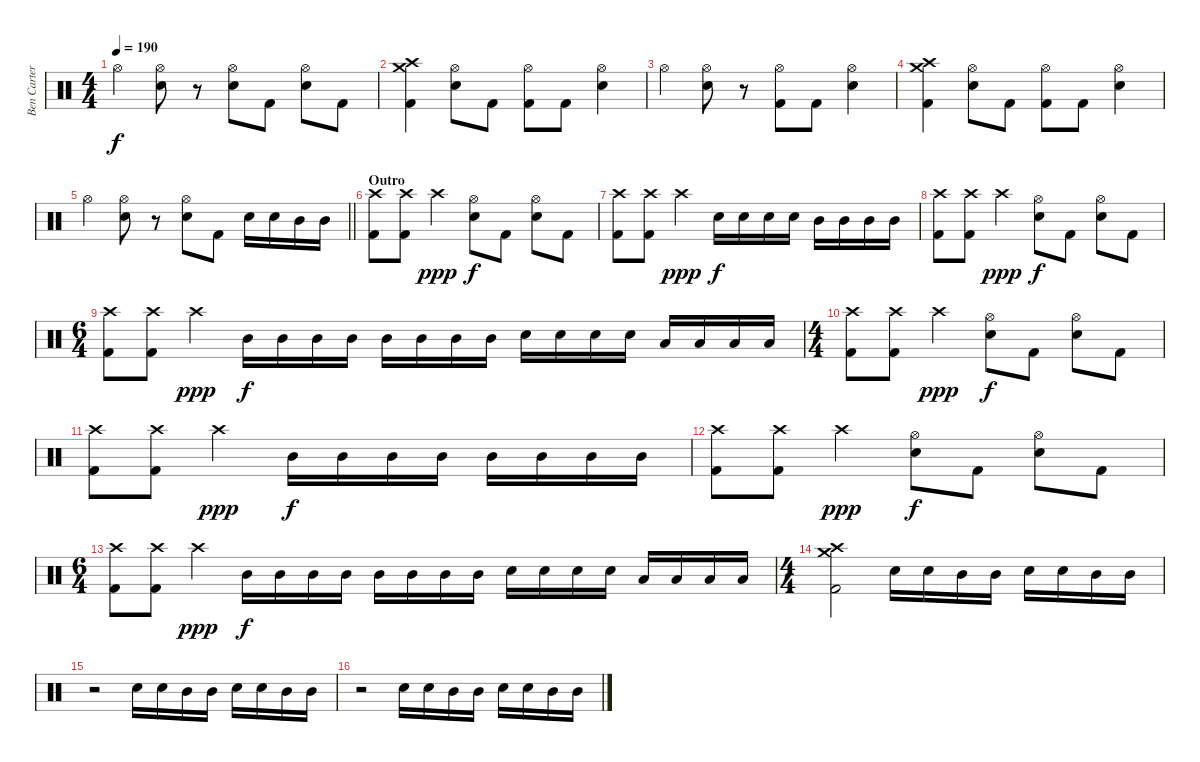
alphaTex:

\track ("Ben Carter" "Ben Carter") {instrument percussion}
\staff {score}
\articulation defaults
\ts (4 4)
\tempo 190
\clef neutral
\ks c "Hi-Hat (open)".4{dy f}
("Hi-Hat (open)" "Snare (hit) 2").8 r.8 ("Hi-Hat (open)" "Snare (hit) 2").8 "Kick (hit) 2".8 ("Hi-Hat (open)" "Snare (hit) 2").8 "Kick (hit) 2".8 |
("Crash medium (hit)" "Crash high (hit)" "Kick (hit) 2").4 ("Hi-Hat (open)" "Snare (hit) 2").8 "Kick (hit) 2".8 ("Hi-Hat (open)" "Kick (hit) 2").8 "Kick (hit) 2".8 ("Hi-Hat (open)" "Snare (hit) 2").4 |
"Hi-Hat (open)".4 ("Hi-Hat (open)" "Snare (hit) 2").8 r.8 ("Hi-Hat (open)" "Kick (hit) 2").8 "Kick (hit) 2".8 ("Hi-Hat (open)" "Snare (hit) 2").4 |
("Crash medium (hit)" "Crash high (hit)" "Kick (hit) 2").4 ("Hi-Hat (open)" "Snare (hit) 2").8 "Kick (hit) 2".8 ("Hi-Hat (open)" "Kick (hit) 2").8 "Kick (hit) 2".8 ("Hi-Hat (open)" "Snare (hit) 2").4 |
\barLineRight lightlight "Hi-Hat (open)".4
("Hi-Hat (open)" "Snare (hit) 2").8 r.8 ("Hi-Hat (open)" "Snare (hit) 2").8 "Kick (hit) 2".8 "Snare (hit) 2".16 "Snare (hit) 2".16 "Mid Tom (hit)".16 "Mid Tom (hit)".16 |
\section ("" "Outro")
("Crash high (hit)" "Kick (hit) 2").8 ("Crash high (hit)" "Kick (hit) 2").8 "Crash high (hit)".4{dy ppp} ("Hi-Hat (open)" "Snare (hit) 2").8{dy f} "Kick (hit) 2".8 ("Hi-Hat (open)" "Snare (hit) 2").8 "Kick (hit) 2".8 |
("Crash high (hit)" "Kick (hit) 2").8 ("Crash high (hit)" "Kick (hit) 2").8 "Crash high (hit)".4{dy ppp} "Snare (hit) 2".16{dy f} "Snare (hit) 2".16 "Snare (hit) 2".16 "Snare (hit) 2".16 "Mid Tom (hit)".16 "Mid Tom (hit)".16 "Mid Tom (hit)".16 "Mid Tom (hit)".16 |
("Crash high (hit)" "Kick (hit) 2").8 ("Crash high (hit)" "Kick (hit) 2").8 "Crash high (hit)".4{dy ppp} ("Hi-Hat (open)" "Snare (hit) 2").8{dy f} "Kick (hit) 2".8 ("Hi-Hat (open)" "Snare (hit) 2").8 "Kick (hit) 2".8 |
\ts (6 4)
("Crash high (hit)" "Kick (hit) 2").8 ("Crash high (hit)" "Kick (hit) 2").8 "Crash high (hit)".4{dy ppp} "Mid Tom (hit)".16{dy f} "Mid Tom (hit)".16 "Mid Tom (hit)".16 "Mid Tom (hit)".16 "Mid Tom (hit)".16 "Mid Tom (hit)".16 "Mid Tom (hit)".16 "Mid Tom (hit)".16 "Snare (hit) 2".16 "Snare (hit) 2".16 "Snare (hit) 2".16 "Snare (hit) 2".16 "Low Tom (hit)".16 "Low Tom (hit)".16 "Low Tom (hit)".16 "Low Tom (hit)".16 |
\ts (4 4)
("Crash high (hit)" "Kick (hit) 2").8 ("Crash high (hit)" "Kick (hit) 2").8 "Crash high (hit)".4{dy ppp} ("Hi-Hat (open)" "Snare (hit) 2").8{dy f} "Kick (hit) 2".8 ("Hi-Hat (open)" "Snare (hit) 2").8 "Kick (hit) 2".8 |
("Crash high (hit)" "Kick (hit) 2").8 ("Crash high (hit)" "Kick (hit) 2").8 "Crash high (hit)".4{dy ppp} "Mid Tom (hit)".16{dy f} "Mid Tom (hit)".16 "Mid Tom (hit)".16 "Mid Tom (hit)".16 "Mid Tom (hit)".16 "Mid Tom (hit)".16 "Mid Tom (hit)".16 "Mid Tom (hit)".16 |
("Crash high (hit)" "Kick (hit) 2").8 ("Crash high (hit)" "Kick (hit) 2").8 "Crash high (hit)".4{dy ppp} ("Hi-Hat (open)" "Snare (hit) 2").8{dy f} "Kick (hit) 2".8 ("Hi-Hat (open)" "Snare (hit) 2").8 "Kick (hit) 2".8 |
\ts (6 4)
("Crash high (hit)" "Kick (hit) 2").8 ("Crash high (hit)" "Kick (hit) 2").8 "Crash high (hit)".4{dy ppp} "Mid Tom (hit)".16{dy f} "Mid Tom (hit)".16 "Mid Tom (hit)".16 "Mid Tom (hit)".16 "Mid Tom (hit)".16 "Mid Tom (hit)".16 "Mid Tom (hit)".16 "Mid Tom (hit)".16 "Snare (hit) 2".16 "Snare (hit) 2".16 "Snare (hit) 2".16 "Snare (hit) 2".16 "Low Tom (hit)".16 "Low Tom (hit)".16 "Low Tom (hit)".16 "Low Tom (hit)".16 |
\ts (4 4)
("Crash medium (hit)" "Crash high (hit)" "Kick (hit) 2").2 "Snare (hit) 2".16 "Snare (hit) 2".16 "Mid Tom (hit)".16 "Mid Tom (hit)".16 "Snare (hit) 2".16 "Snare (hit) 2".16 "Mid Tom (hit)".16 "Mid Tom (hit)".16 |
r.2 "Snare (hit) 2".16 "Snare (hit) 2".16 "Mid Tom (hit)".16 "Mid Tom (hit)".16 "Snare (hit) 2".16 "Snare (hit) 2".16 "Mid Tom (hit)".16 "Mid Tom (hit)".16 |
r.2 "Snare (hit) 2".16 "Snare (hit) 2".16 "Mid Tom (hit)".16 "Mid Tom (hit)".16 "Snare (hit) 2".16 "Snare (hit) 2".16 "Mid Tom (hit)".16 "Mid Tom (hit)".16
